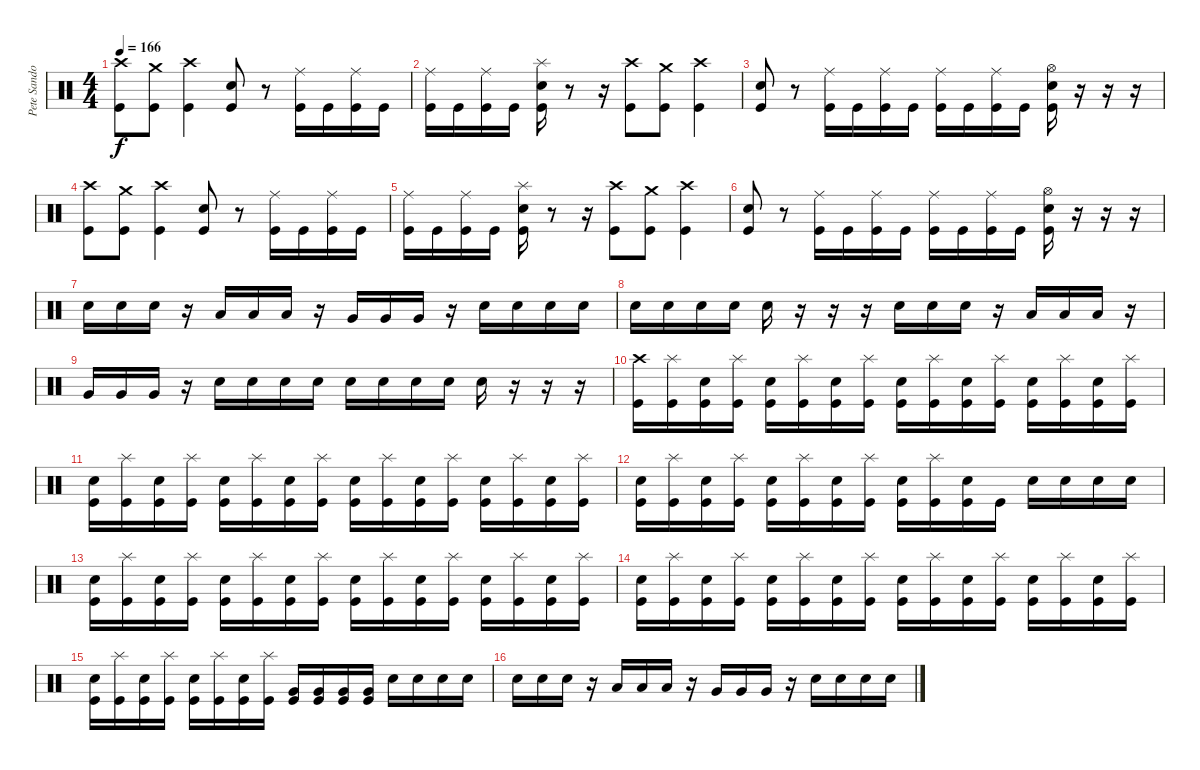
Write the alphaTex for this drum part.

\track ("Pete Sandoval" "Pete Sando") {instrument percussion}
\staff {score}
\articulation defaults
\ts (4 4)
\tempo 166
\clef neutral
\ks c
("Crash high (hit)" "Kick (hit)").8{dy f} ("Crash medium (hit)" "Kick (hit)").8 ("Crash high (hit)" "Kick (hit)").4 ("Electric Snare (hit)" "Kick (hit)").8 r.8 ("Ride (middle)" "Kick (hit)").16 "Kick (hit)".16 ("Ride (middle)" "Kick (hit)").16 "Kick (hit)".16 |
("Ride (middle)" "Kick (hit)").16 "Kick (hit)".16 ("Ride (middle)" "Kick (hit)").16 "Kick (hit)".16 ("Electric Snare (hit)" "Splash (hit)" "Kick (hit)").16 r.8 r.16 ("Crash high (hit)" "Kick (hit)").8 ("Crash medium (hit)" "Kick (hit)").8 ("Crash high (hit)" "Kick (hit)").4 |
("Electric Snare (hit)" "Kick (hit)").8 r.8 ("Ride (middle)" "Kick (hit)").16 "Kick (hit)".16 ("Ride (middle)" "Kick (hit)").16 "Kick (hit)".16 ("Ride (middle)" "Kick (hit)").16 "Kick (hit)".16 ("Ride (middle)" "Kick (hit)").16 "Kick (hit)".16 ("Electric Snare (hit)" "Hi-Hat (open)" "Kick (hit)").16 r.16 r.16 r.16 |
("Crash high (hit)" "Kick (hit)").8 ("Crash medium (hit)" "Kick (hit)").8 ("Crash high (hit)" "Kick (hit)").4 ("Electric Snare (hit)" "Kick (hit)").8 r.8 ("Ride (middle)" "Kick (hit)").16 "Kick (hit)".16 ("Ride (middle)" "Kick (hit)").16 "Kick (hit)".16 |
("Ride (middle)" "Kick (hit)").16 "Kick (hit)".16 ("Ride (middle)" "Kick (hit)").16 "Kick (hit)".16 ("Electric Snare (hit)" "Splash (hit)" "Kick (hit)").16 r.8 r.16 ("Crash high (hit)" "Kick (hit)").8 ("Crash medium (hit)" "Kick (hit)").8 ("Crash high (hit)" "Kick (hit)").4 |
("Electric Snare (hit)" "Kick (hit)").8 r.8 ("Ride (middle)" "Kick (hit)").16 "Kick (hit)".16 ("Ride (middle)" "Kick (hit)").16 "Kick (hit)".16 ("Ride (middle)" "Kick (hit)").16 "Kick (hit)".16 ("Ride (middle)" "Kick (hit)").16 "Kick (hit)".16 ("Electric Snare (hit)" "Hi-Hat (open)" "Kick (hit)").16 r.16 r.16 r.16 |
"Electric Snare (hit)".16 "Electric Snare (hit)".16 "Electric Snare (hit)".16 r.16 "Low Tom (hit)".16 "Low Tom (hit)".16 "Low Tom (hit)".16 r.16 "Very Low Tom (hit)".16 "Very Low Tom (hit)".16 "Very Low Tom (hit)".16 r.16 "Electric Snare (hit)".16 "Electric Snare (hit)".16 "Electric Snare (hit)".16 "Electric Snare (hit)".16 |
"Electric Snare (hit)".16 "Electric Snare (hit)".16 "Electric Snare (hit)".16 "Electric Snare (hit)".16 "Electric Snare (hit)".16 r.16 r.16 r.16 "Electric Snare (hit)".16 "Electric Snare (hit)".16 "Electric Snare (hit)".16 r.16 "Low Tom (hit)".16 "Low Tom (hit)".16 "Low Tom (hit)".16 r.16 |
"Very Low Tom (hit)".16 "Very Low Tom (hit)".16 "Very Low Tom (hit)".16 r.16 "Electric Snare (hit)".16 "Electric Snare (hit)".16 "Electric Snare (hit)".16 "Electric Snare (hit)".16 "Electric Snare (hit)".16 "Electric Snare (hit)".16 "Electric Snare (hit)".16 "Electric Snare (hit)".16 "Electric Snare (hit)".16 r.16 r.16 r.16 |
("Crash high (hit)" "Kick (hit)").16 ("Splash (hit)" "Kick (hit)").16 ("Electric Snare (hit)" "Kick (hit)").16 ("Splash (hit)" "Kick (hit)").16 ("Electric Snare (hit)" "Kick (hit)").16 ("Splash (hit)" "Kick (hit)").16 ("Electric Snare (hit)" "Kick (hit)").16 ("Splash (hit)" "Kick (hit)").16 ("Electric Snare (hit)" "Kick (hit)").16 ("Splash (hit)" "Kick (hit)").16 ("Electric Snare (hit)" "Kick (hit)").16 ("Splash (hit)" "Kick (hit)").16 ("Electric Snare (hit)" "Kick (hit)").16 ("Splash (hit)" "Kick (hit)").16 ("Electric Snare (hit)" "Kick (hit)").16 ("Splash (hit)" "Kick (hit)").16 |
("Electric Snare (hit)" "Kick (hit)").16 ("Splash (hit)" "Kick (hit)").16 ("Electric Snare (hit)" "Kick (hit)").16 ("Splash (hit)" "Kick (hit)").16 ("Electric Snare (hit)" "Kick (hit)").16 ("Splash (hit)" "Kick (hit)").16 ("Electric Snare (hit)" "Kick (hit)").16 ("Splash (hit)" "Kick (hit)").16 ("Electric Snare (hit)" "Kick (hit)").16 ("Splash (hit)" "Kick (hit)").16 ("Electric Snare (hit)" "Kick (hit)").16 ("Splash (hit)" "Kick (hit)").16 ("Electric Snare (hit)" "Kick (hit)").16 ("Splash (hit)" "Kick (hit)").16 ("Electric Snare (hit)" "Kick (hit)").16 ("Splash (hit)" "Kick (hit)").16 |
("Electric Snare (hit)" "Kick (hit)").16 ("Splash (hit)" "Kick (hit)").16 ("Electric Snare (hit)" "Kick (hit)").16 ("Splash (hit)" "Kick (hit)").16 ("Electric Snare (hit)" "Kick (hit)").16 ("Splash (hit)" "Kick (hit)").16 ("Electric Snare (hit)" "Kick (hit)").16 ("Splash (hit)" "Kick (hit)").16 ("Electric Snare (hit)" "Kick (hit)").16 ("Splash (hit)" "Kick (hit)").16 ("Electric Snare (hit)" "Kick (hit)").16 "Kick (hit)".16 "Electric Snare (hit)".16 "Electric Snare (hit)".16 "Electric Snare (hit)".16 "Electric Snare (hit)".16 |
("Electric Snare (hit)" "Kick (hit)").16 ("Splash (hit)" "Kick (hit)").16 ("Electric Snare (hit)" "Kick (hit)").16 ("Splash (hit)" "Kick (hit)").16 ("Electric Snare (hit)" "Kick (hit)").16 ("Splash (hit)" "Kick (hit)").16 ("Electric Snare (hit)" "Kick (hit)").16 ("Splash (hit)" "Kick (hit)").16 ("Electric Snare (hit)" "Kick (hit)").16 ("Splash (hit)" "Kick (hit)").16 ("Electric Snare (hit)" "Kick (hit)").16 ("Splash (hit)" "Kick (hit)").16 ("Electric Snare (hit)" "Kick (hit)").16 ("Splash (hit)" "Kick (hit)").16 ("Electric Snare (hit)" "Kick (hit)").16 ("Splash (hit)" "Kick (hit)").16 |
("Electric Snare (hit)" "Kick (hit)").16 ("Splash (hit)" "Kick (hit)").16 ("Electric Snare (hit)" "Kick (hit)").16 ("Splash (hit)" "Kick (hit)").16 ("Electric Snare (hit)" "Kick (hit)").16 ("Splash (hit)" "Kick (hit)").16 ("Electric Snare (hit)" "Kick (hit)").16 ("Splash (hit)" "Kick (hit)").16 ("Electric Snare (hit)" "Kick (hit)").16 ("Splash (hit)" "Kick (hit)").16 ("Electric Snare (hit)" "Kick (hit)").16 ("Splash (hit)" "Kick (hit)").16 ("Electric Snare (hit)" "Kick (hit)").16 ("Splash (hit)" "Kick (hit)").16 ("Electric Snare (hit)" "Kick (hit)").16 ("Splash (hit)" "Kick (hit)").16 |
("Electric Snare (hit)" "Kick (hit)").16 ("Splash (hit)" "Kick (hit)").16 ("Electric Snare (hit)" "Kick (hit)").16 ("Splash (hit)" "Kick (hit)").16 ("Electric Snare (hit)" "Kick (hit)").16 ("Splash (hit)" "Kick (hit)").16 ("Electric Snare (hit)" "Kick (hit)").16 ("Splash (hit)" "Kick (hit)").16 ("Very Low Tom (hit)" "Kick (hit)").16 ("Very Low Tom (hit)" "Kick (hit)").16 ("Very Low Tom (hit)" "Kick (hit)").16 ("Very Low Tom (hit)" "Kick (hit)").16 "Electric Snare (hit)".16 "Electric Snare (hit)".16 "Electric Snare (hit)".16 "Electric Snare (hit)".16 |
"Electric Snare (hit)".16 "Electric Snare (hit)".16 "Electric Snare (hit)".16 r.16 "Low Tom (hit)".16 "Low Tom (hit)".16 "Low Tom (hit)".16 r.16 "Very Low Tom (hit)".16 "Very Low Tom (hit)".16 "Very Low Tom (hit)".16 r.16 "Electric Snare (hit)".16 "Electric Snare (hit)".16 "Electric Snare (hit)".16 "Electric Snare (hit)".16
